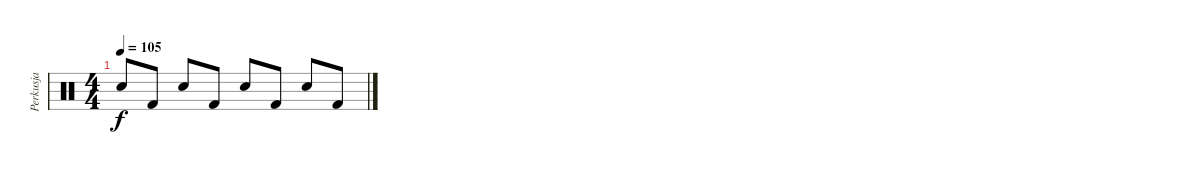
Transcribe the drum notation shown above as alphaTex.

\track ("Perkusja" "Perkusja") {instrument percussion}
\staff {score}
\articulation defaults
\ts (4 4)
\tempo 105
\clef neutral
\ks c "Electric Snare (hit)".8{dy f} "Kick (hit) 2".8 "Electric Snare (hit)".8 "Kick (hit) 2".8 "Electric Snare (hit)".8 "Kick (hit) 2".8 "Electric Snare (hit)".8 "Kick (hit) 2".8
